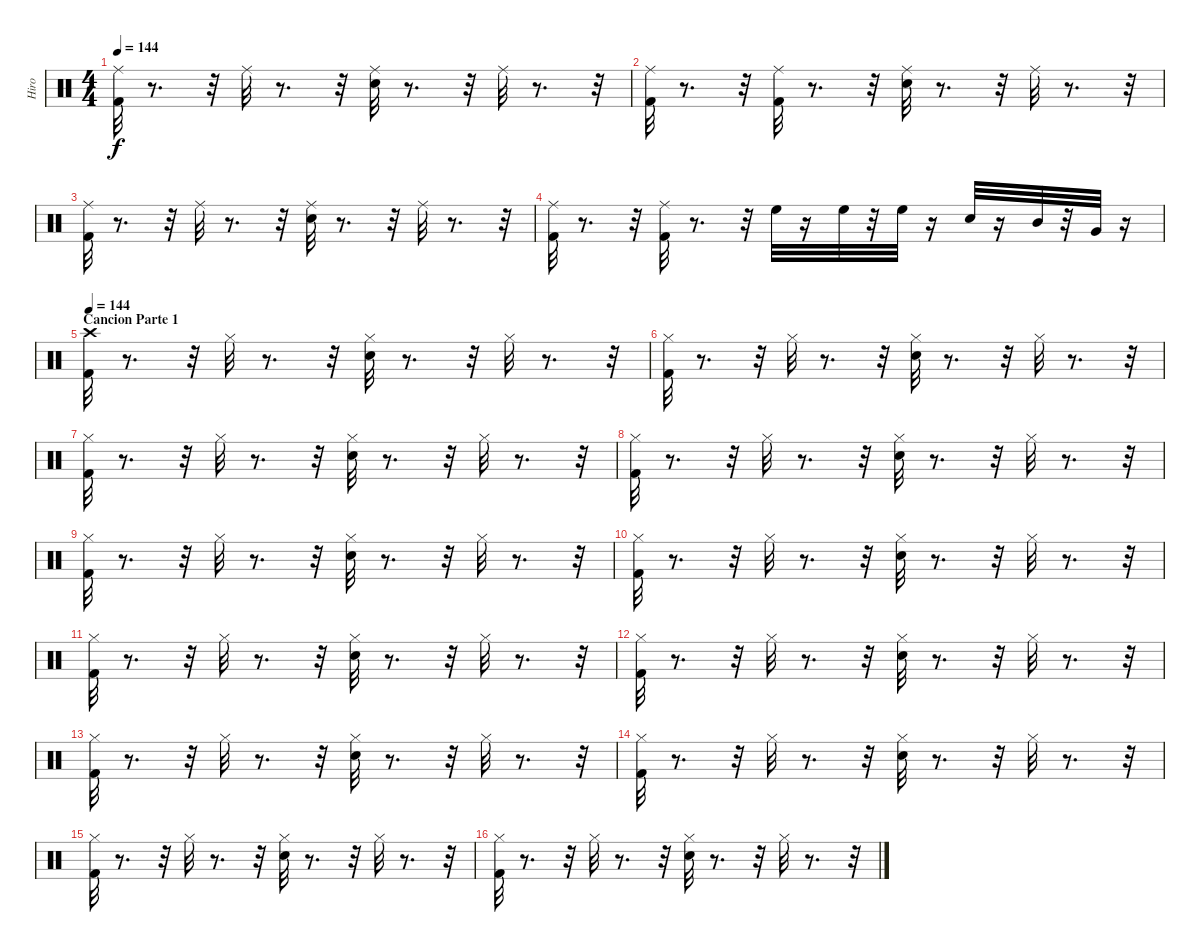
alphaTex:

\track ("Hiro" "Hiro") {instrument percussion}
\staff {score}
\articulation defaults
\ts (4 4)
\tempo 144
\clef neutral
\ks c
("Kick (hit) 2" "Ride (middle)").32{dy f} r.8{d} r.32 "Ride (middle)".32 r.8{d} r.32 ("Snare (hit) 2" "Ride (middle)").32 r.8{d} r.32 "Ride (middle)".32 r.8{d} r.32 |
("Kick (hit) 2" "Ride (middle)").32 r.8{d} r.32 ("Kick (hit) 2" "Ride (middle)").32 r.8{d} r.32 ("Snare (hit) 2" "Ride (middle)").32 r.8{d} r.32 "Ride (middle)".32 r.8{d} r.32 |
("Kick (hit) 2" "Ride (middle)").32 r.8{d} r.32 "Ride (middle)".32 r.8{d} r.32 ("Snare (hit) 2" "Ride (middle)").32 r.8{d} r.32 "Ride (middle)".32 r.8{d} r.32 |
("Kick (hit) 2" "Ride (middle)").32 r.8{d} r.32 ("Kick (hit) 2" "Ride (middle)").32 r.8{d} r.32 "High Floor Tom (hit)".32 r.16 "High Floor Tom (hit)".32 r.32 "High Floor Tom (hit)".32 r.16 "Snare (hit) 2".32 r.16 "Mid Tom (hit)".32 r.32 "Very Low Tom (hit)".32 r.16 |
\section ("" "Cancion Parte 1")
\tempo 144
("Kick (hit) 2" "Crash high (hit)").32 r.8{d} r.32 "Hi-Hat (closed)".32 r.8{d} r.32 ("Snare (hit) 2" "Hi-Hat (closed)").32 r.8{d} r.32 "Hi-Hat (closed)".32 r.8{d} r.32 |
("Hi-Hat (closed)" "Kick (hit) 2").32 r.8{d} r.32 "Hi-Hat (closed)".32 r.8{d} r.32 ("Hi-Hat (closed)" "Snare (hit) 2").32 r.8{d} r.32 "Hi-Hat (closed)".32 r.8{d} r.32 |
("Hi-Hat (closed)" "Kick (hit) 2").32 r.8{d} r.32 "Hi-Hat (closed)".32 r.8{d} r.32 ("Hi-Hat (closed)" "Snare (hit) 2").32 r.8{d} r.32 "Hi-Hat (closed)".32 r.8{d} r.32 |
("Hi-Hat (closed)" "Kick (hit) 2").32 r.8{d} r.32 "Hi-Hat (closed)".32 r.8{d} r.32 ("Hi-Hat (closed)" "Snare (hit) 2").32 r.8{d} r.32 "Hi-Hat (closed)".32 r.8{d} r.32 |
("Hi-Hat (closed)" "Kick (hit) 2").32 r.8{d} r.32 "Hi-Hat (closed)".32 r.8{d} r.32 ("Hi-Hat (closed)" "Snare (hit) 2").32 r.8{d} r.32 "Hi-Hat (closed)".32 r.8{d} r.32 |
("Hi-Hat (closed)" "Kick (hit) 2").32 r.8{d} r.32 "Hi-Hat (closed)".32 r.8{d} r.32 ("Hi-Hat (closed)" "Snare (hit) 2").32 r.8{d} r.32 "Hi-Hat (closed)".32 r.8{d} r.32 |
("Hi-Hat (closed)" "Kick (hit) 2").32 r.8{d} r.32 "Hi-Hat (closed)".32 r.8{d} r.32 ("Hi-Hat (closed)" "Snare (hit) 2").32 r.8{d} r.32 "Hi-Hat (closed)".32 r.8{d} r.32 |
("Hi-Hat (closed)" "Kick (hit) 2").32 r.8{d} r.32 "Hi-Hat (closed)".32 r.8{d} r.32 ("Hi-Hat (closed)" "Snare (hit) 2").32 r.8{d} r.32 "Hi-Hat (closed)".32 r.8{d} r.32 |
("Hi-Hat (closed)" "Kick (hit) 2").32 r.8{d} r.32 "Hi-Hat (closed)".32 r.8{d} r.32 ("Hi-Hat (closed)" "Snare (hit) 2").32 r.8{d} r.32 "Hi-Hat (closed)".32 r.8{d} r.32 |
("Kick (hit) 2" "Hi-Hat (closed)").32 r.8{d} r.32 "Hi-Hat (closed)".32 r.8{d} r.32 ("Snare (hit) 2" "Hi-Hat (closed)").32 r.8{d} r.32 "Hi-Hat (closed)".32 r.8{d} r.32 |
("Hi-Hat (closed)" "Kick (hit) 2").32 r.8{d} r.32 "Hi-Hat (closed)".32 r.8{d} r.32 ("Hi-Hat (closed)" "Snare (hit) 2").32 r.8{d} r.32 "Hi-Hat (closed)".32 r.8{d} r.32 |
("Hi-Hat (closed)" "Kick (hit) 2").32 r.8{d} r.32 "Hi-Hat (closed)".32 r.8{d} r.32 ("Hi-Hat (closed)" "Snare (hit) 2").32 r.8{d} r.32 "Hi-Hat (closed)".32 r.8{d} r.32
